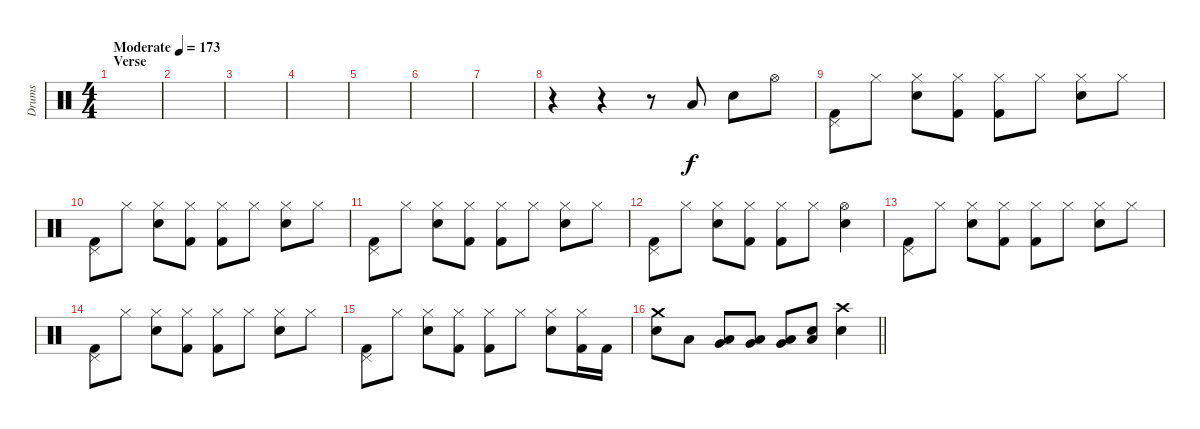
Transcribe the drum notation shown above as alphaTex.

\track ("Drums" "Drums") {instrument percussion}
\staff {score}
\articulation defaults
\ts (4 4)
\section ("" "Verse")
\tempo (173 "Moderate")
\clef neutral
\ks c
|
|
|
|
|
|
|
r.4 r.4 r.8 "Low Floor Tom (hit)".8 "Electric Snare (hit)".8 "Hi-Hat (open)".8 |
("Pedal Hi-Hat (hit)" "Kick (hit) 2").8 "Hi-Hat (closed)".8 ("Hi-Hat (closed)" "Electric Snare (hit)").8 ("Hi-Hat (closed)" "Kick (hit) 2").8 ("Hi-Hat (closed)" "Kick (hit) 2").8 "Hi-Hat (closed)".8 ("Hi-Hat (closed)" "Electric Snare (hit)").8 "Hi-Hat (closed)".8 |
("Pedal Hi-Hat (hit)" "Kick (hit) 2").8 "Hi-Hat (closed)".8 ("Hi-Hat (closed)" "Electric Snare (hit)").8 ("Hi-Hat (closed)" "Kick (hit) 2").8 ("Hi-Hat (closed)" "Kick (hit) 2").8 "Hi-Hat (closed)".8 ("Hi-Hat (closed)" "Electric Snare (hit)").8 "Hi-Hat (closed)".8 |
("Pedal Hi-Hat (hit)" "Kick (hit) 2").8 "Hi-Hat (closed)".8 ("Hi-Hat (closed)" "Electric Snare (hit)").8 ("Hi-Hat (closed)" "Kick (hit) 2").8 ("Hi-Hat (closed)" "Kick (hit) 2").8 "Hi-Hat (closed)".8 ("Hi-Hat (closed)" "Electric Snare (hit)").8 "Hi-Hat (closed)".8 |
("Pedal Hi-Hat (hit)" "Kick (hit) 2").8 "Hi-Hat (closed)".8 ("Hi-Hat (closed)" "Electric Snare (hit)").8 ("Hi-Hat (closed)" "Kick (hit) 2").8 ("Hi-Hat (closed)" "Kick (hit) 2").8 "Hi-Hat (closed)".8 ("Hi-Hat (open)" "Electric Snare (hit)").4 |
("Pedal Hi-Hat (hit)" "Kick (hit) 2").8 "Hi-Hat (closed)".8 ("Hi-Hat (closed)" "Electric Snare (hit)").8 ("Hi-Hat (closed)" "Kick (hit) 2").8 ("Hi-Hat (closed)" "Kick (hit) 2").8 "Hi-Hat (closed)".8 ("Hi-Hat (closed)" "Electric Snare (hit)").8 "Hi-Hat (closed)".8 |
("Pedal Hi-Hat (hit)" "Kick (hit) 2").8 "Hi-Hat (closed)".8 ("Hi-Hat (closed)" "Electric Snare (hit)").8 ("Hi-Hat (closed)" "Kick (hit) 2").8 ("Hi-Hat (closed)" "Kick (hit) 2").8 "Hi-Hat (closed)".8 ("Hi-Hat (closed)" "Electric Snare (hit)").8 "Hi-Hat (closed)".8 |
("Pedal Hi-Hat (hit)" "Kick (hit) 2").8 "Hi-Hat (closed)".8 ("Hi-Hat (closed)" "Electric Snare (hit)").8 ("Hi-Hat (closed)" "Kick (hit) 2").8 ("Hi-Hat (closed)" "Kick (hit) 2").8 "Hi-Hat (closed)".8 ("Hi-Hat (closed)" "Electric Snare (hit)").8 ("Hi-Hat (closed)" "Kick (hit) 2").16 "Kick (hit) 2".16 |
\barLineRight lightlight
("Crash medium (hit)" "Electric Snare (hit)").8 "Low Floor Tom (hit)".8 ("Very Low Tom (hit)" "Low Floor Tom (hit)").8 ("Low Tom (hit)" "Very Low Tom (hit)").8 ("Low Tom (hit)" "Very Low Tom (hit)").8 ("Low Tom (hit)" "Electric Snare (hit)").8 ("Crash high (hit)" "Electric Snare (hit)").4
